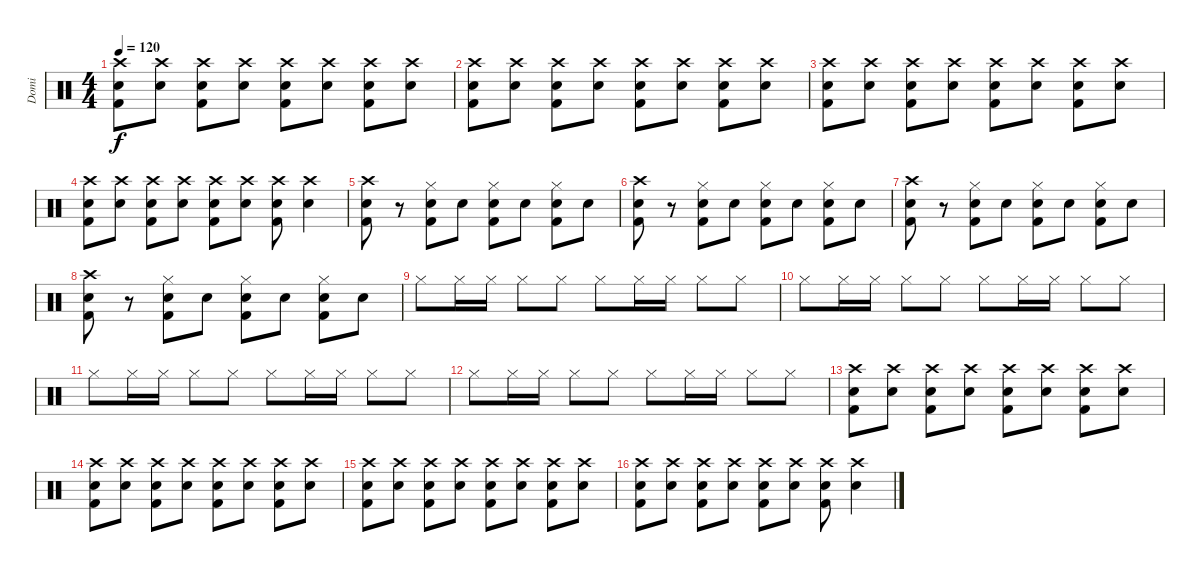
\track ("Domi" "Domi") {instrument percussion}
\staff {score}
\articulation defaults
\ts (4 4)
\tempo 120
\clef neutral
\ks c
("Crash high (hit)" "Snare (hit) 2" "Kick (hit) 2").8{dy f} ("Crash high (hit)" "Snare (hit) 2").8 ("Crash high (hit)" "Snare (hit) 2" "Kick (hit) 2").8 ("Crash high (hit)" "Snare (hit) 2").8 ("Crash high (hit)" "Snare (hit) 2" "Kick (hit) 2").8 ("Crash high (hit)" "Snare (hit) 2").8 ("Crash high (hit)" "Snare (hit) 2" "Kick (hit) 2").8 ("Crash high (hit)" "Snare (hit) 2").8 |
("Crash high (hit)" "Snare (hit) 2" "Kick (hit) 2").8 ("Crash high (hit)" "Snare (hit) 2").8 ("Crash high (hit)" "Snare (hit) 2" "Kick (hit) 2").8 ("Crash high (hit)" "Snare (hit) 2").8 ("Crash high (hit)" "Snare (hit) 2" "Kick (hit) 2").8 ("Crash high (hit)" "Snare (hit) 2").8 ("Crash high (hit)" "Snare (hit) 2" "Kick (hit) 2").8 ("Crash high (hit)" "Snare (hit) 2").8 |
("Crash high (hit)" "Snare (hit) 2" "Kick (hit) 2").8 ("Crash high (hit)" "Snare (hit) 2").8 ("Crash high (hit)" "Snare (hit) 2" "Kick (hit) 2").8 ("Crash high (hit)" "Snare (hit) 2").8 ("Crash high (hit)" "Snare (hit) 2" "Kick (hit) 2").8 ("Crash high (hit)" "Snare (hit) 2").8 ("Crash high (hit)" "Snare (hit) 2" "Kick (hit) 2").8 ("Crash high (hit)" "Snare (hit) 2").8 |
("Crash high (hit)" "Snare (hit) 2" "Kick (hit) 2").8 ("Crash high (hit)" "Snare (hit) 2").8 ("Crash high (hit)" "Snare (hit) 2" "Kick (hit) 2").8 ("Crash high (hit)" "Snare (hit) 2").8 ("Crash high (hit)" "Snare (hit) 2" "Kick (hit) 2").8 ("Crash high (hit)" "Snare (hit) 2").8 ("Crash high (hit)" "Snare (hit) 2" "Kick (hit) 2").8 ("Crash high (hit)" "Snare (hit) 2").4 |
("Crash high (hit)" "Snare (hit) 2" "Kick (hit) 2").8 r.8 ("Hi-Hat (closed)" "Snare (hit) 2" "Kick (hit) 2").8 "Snare (hit) 2".8 ("Hi-Hat (closed)" "Snare (hit) 2" "Kick (hit) 2").8 "Snare (hit) 2".8 ("Hi-Hat (closed)" "Snare (hit) 2" "Kick (hit) 2").8 "Snare (hit) 2".8 |
("Crash high (hit)" "Snare (hit) 2" "Kick (hit) 2").8 r.8 ("Hi-Hat (closed)" "Snare (hit) 2" "Kick (hit) 2").8 "Snare (hit) 2".8 ("Hi-Hat (closed)" "Snare (hit) 2" "Kick (hit) 2").8 "Snare (hit) 2".8 ("Hi-Hat (closed)" "Snare (hit) 2" "Kick (hit) 2").8 "Snare (hit) 2".8 |
("Crash high (hit)" "Snare (hit) 2" "Kick (hit) 2").8 r.8 ("Hi-Hat (closed)" "Snare (hit) 2" "Kick (hit) 2").8 "Snare (hit) 2".8 ("Hi-Hat (closed)" "Snare (hit) 2" "Kick (hit) 2").8 "Snare (hit) 2".8 ("Hi-Hat (closed)" "Snare (hit) 2" "Kick (hit) 2").8 "Snare (hit) 2".8 |
("Crash high (hit)" "Snare (hit) 2" "Kick (hit) 2").8 r.8 ("Hi-Hat (closed)" "Snare (hit) 2" "Kick (hit) 2").8 "Snare (hit) 2".8 ("Hi-Hat (closed)" "Snare (hit) 2" "Kick (hit) 2").8 "Snare (hit) 2".8 ("Hi-Hat (closed)" "Snare (hit) 2" "Kick (hit) 2").8 "Snare (hit) 2".8 |
"Hi-Hat (closed)".8 "Hi-Hat (closed)".16 "Hi-Hat (closed)".16 "Hi-Hat (closed)".8 "Hi-Hat (closed)".8 "Hi-Hat (closed)".8 "Hi-Hat (closed)".16 "Hi-Hat (closed)".16 "Hi-Hat (closed)".8 "Hi-Hat (closed)".8 |
"Hi-Hat (closed)".8 "Hi-Hat (closed)".16 "Hi-Hat (closed)".16 "Hi-Hat (closed)".8 "Hi-Hat (closed)".8 "Hi-Hat (closed)".8 "Hi-Hat (closed)".16 "Hi-Hat (closed)".16 "Hi-Hat (closed)".8 "Hi-Hat (closed)".8 |
"Hi-Hat (closed)".8 "Hi-Hat (closed)".16 "Hi-Hat (closed)".16 "Hi-Hat (closed)".8 "Hi-Hat (closed)".8 "Hi-Hat (closed)".8 "Hi-Hat (closed)".16 "Hi-Hat (closed)".16 "Hi-Hat (closed)".8 "Hi-Hat (closed)".8 |
"Hi-Hat (closed)".8 "Hi-Hat (closed)".16 "Hi-Hat (closed)".16 "Hi-Hat (closed)".8 "Hi-Hat (closed)".8 "Hi-Hat (closed)".8 "Hi-Hat (closed)".16 "Hi-Hat (closed)".16 "Hi-Hat (closed)".8 "Hi-Hat (closed)".8 |
("Crash high (hit)" "Snare (hit) 2" "Kick (hit) 2").8 ("Crash high (hit)" "Snare (hit) 2").8 ("Crash high (hit)" "Snare (hit) 2" "Kick (hit) 2").8 ("Crash high (hit)" "Snare (hit) 2").8 ("Crash high (hit)" "Snare (hit) 2" "Kick (hit) 2").8 ("Crash high (hit)" "Snare (hit) 2").8 ("Crash high (hit)" "Snare (hit) 2" "Kick (hit) 2").8 ("Crash high (hit)" "Snare (hit) 2").8 |
("Crash high (hit)" "Snare (hit) 2" "Kick (hit) 2").8 ("Crash high (hit)" "Snare (hit) 2").8 ("Crash high (hit)" "Snare (hit) 2" "Kick (hit) 2").8 ("Crash high (hit)" "Snare (hit) 2").8 ("Crash high (hit)" "Snare (hit) 2" "Kick (hit) 2").8 ("Crash high (hit)" "Snare (hit) 2").8 ("Crash high (hit)" "Snare (hit) 2" "Kick (hit) 2").8 ("Crash high (hit)" "Snare (hit) 2").8 |
("Crash high (hit)" "Snare (hit) 2" "Kick (hit) 2").8 ("Crash high (hit)" "Snare (hit) 2").8 ("Crash high (hit)" "Snare (hit) 2" "Kick (hit) 2").8 ("Crash high (hit)" "Snare (hit) 2").8 ("Crash high (hit)" "Snare (hit) 2" "Kick (hit) 2").8 ("Crash high (hit)" "Snare (hit) 2").8 ("Crash high (hit)" "Snare (hit) 2" "Kick (hit) 2").8 ("Crash high (hit)" "Snare (hit) 2").8 |
("Crash high (hit)" "Snare (hit) 2" "Kick (hit) 2").8 ("Crash high (hit)" "Snare (hit) 2").8 ("Crash high (hit)" "Snare (hit) 2" "Kick (hit) 2").8 ("Crash high (hit)" "Snare (hit) 2").8 ("Crash high (hit)" "Snare (hit) 2" "Kick (hit) 2").8 ("Crash high (hit)" "Snare (hit) 2").8 ("Crash high (hit)" "Snare (hit) 2" "Kick (hit) 2").8 ("Crash high (hit)" "Snare (hit) 2").4
